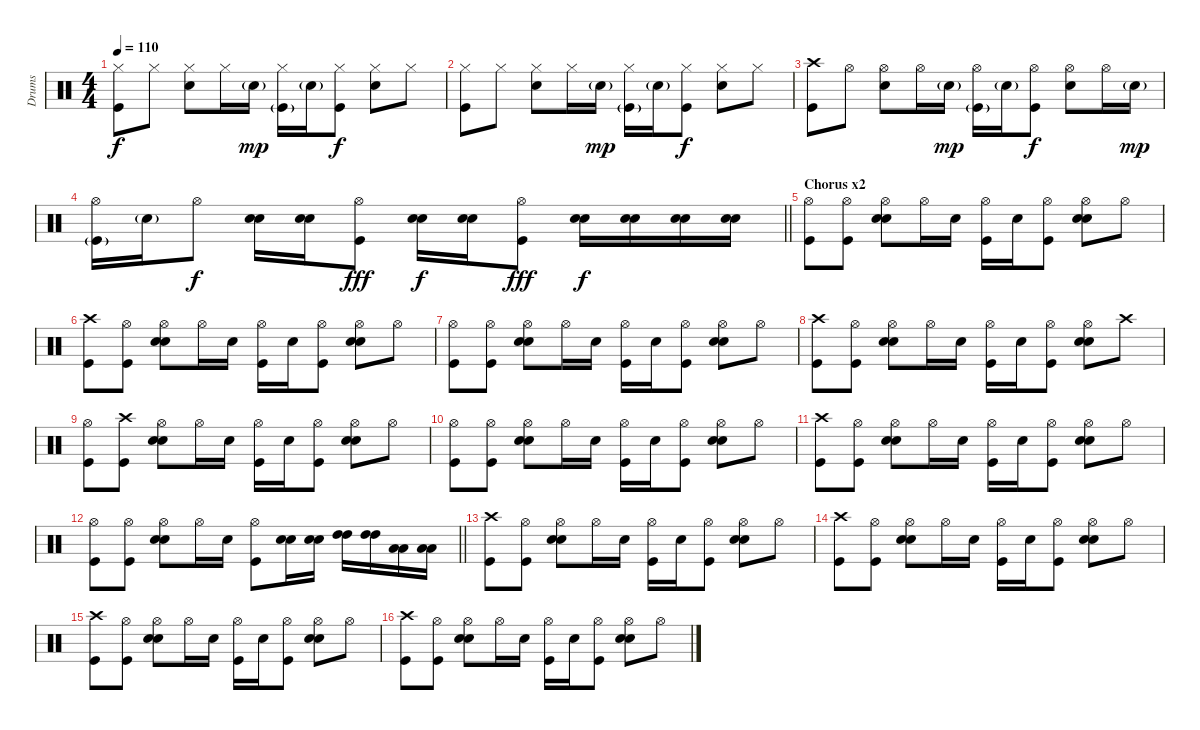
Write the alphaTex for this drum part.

\track ("Drums" "Drums") {instrument percussion}
\staff {score}
\articulation defaults
\ts (4 4)
\tempo 110
\clef neutral
\ks c
("Hi-Hat (closed)" "Kick (hit)").8{dy f} "Hi-Hat (closed)".8 ("Hi-Hat (closed)" "Electric Snare (hit)").8 "Hi-Hat (closed)".16 "Electric Snare (hit)"{g}.16{dy mp} ("Hi-Hat (closed)" "Kick (hit)"{g}).16 "Electric Snare (hit)"{g}.16 ("Hi-Hat (closed)" "Kick (hit)").8{dy f} ("Hi-Hat (closed)" "Electric Snare (hit)").8 "Hi-Hat (closed)".8 |
("Hi-Hat (closed)" "Kick (hit)").8 "Hi-Hat (closed)".8 ("Hi-Hat (closed)" "Electric Snare (hit)").8 "Hi-Hat (closed)".16 "Electric Snare (hit)"{g}.16{dy mp} ("Hi-Hat (closed)" "Kick (hit)"{g}).16 "Electric Snare (hit)"{g}.16 ("Hi-Hat (closed)" "Kick (hit)").8{dy f} ("Hi-Hat (closed)" "Electric Snare (hit)").8 "Hi-Hat (closed)".8 |
("Crash high (hit)" "Kick (hit)").8 "Hi-Hat (open)".8 ("Hi-Hat (open)" "Electric Snare (hit)").8 "Hi-Hat (open)".16 "Electric Snare (hit)"{g}.16{dy mp} ("Hi-Hat (open)" "Kick (hit)"{g}).16 "Electric Snare (hit)"{g}.16 ("Hi-Hat (open)" "Kick (hit)").8{dy f} ("Hi-Hat (open)" "Electric Snare (hit)").8 "Hi-Hat (open)".16 "Electric Snare (hit)"{g}.16{dy mp} |
\barLineRight lightlight
("Hi-Hat (open)" "Kick (hit)"{g}).16 "Electric Snare (hit)"{g}.16 "Hi-Hat (open)".8{dy f} ("Electric Snare (hit)" "Snare (hit) 2").16 ("Electric Snare (hit)" "Snare (hit) 2").16 ("Hi-Hat (open)" "Kick (hit)").8{dy fff} ("Electric Snare (hit)" "Snare (hit) 2").16{dy f} ("Electric Snare (hit)" "Snare (hit) 2").16 ("Hi-Hat (open)" "Kick (hit)").8{dy fff} ("Electric Snare (hit)" "Snare (hit) 2").16{dy f} ("Electric Snare (hit)" "Snare (hit) 2").16 ("Electric Snare (hit)" "Snare (hit) 2").16 ("Electric Snare (hit)" "Snare (hit) 2").16 |
\section ("" "Chorus x2")
("Hi-Hat (open)" "Kick (hit)").8 ("Hi-Hat (open)" "Kick (hit)").8 ("Hi-Hat (open)" "Electric Snare (hit)" "Snare (hit) 2").8 "Hi-Hat (open)".16 "Electric Snare (hit)".16 ("Hi-Hat (open)" "Kick (hit)").16 "Electric Snare (hit)".16 ("Hi-Hat (open)" "Kick (hit)").8 ("Hi-Hat (open)" "Electric Snare (hit)" "Snare (hit) 2").8 "Hi-Hat (open)".8 |
("Crash high (hit)" "Kick (hit)").8 ("Hi-Hat (open)" "Kick (hit)").8 ("Hi-Hat (open)" "Electric Snare (hit)" "Snare (hit) 2").8 "Hi-Hat (open)".16 "Electric Snare (hit)".16 ("Hi-Hat (open)" "Kick (hit)").16 "Electric Snare (hit)".16 ("Hi-Hat (open)" "Kick (hit)").8 ("Hi-Hat (open)" "Electric Snare (hit)" "Snare (hit) 2").8 "Hi-Hat (open)".8 |
("Hi-Hat (open)" "Kick (hit)").8 ("Hi-Hat (open)" "Kick (hit)").8 ("Hi-Hat (open)" "Electric Snare (hit)" "Snare (hit) 2").8 "Hi-Hat (open)".16 "Electric Snare (hit)".16 ("Hi-Hat (open)" "Kick (hit)").16 "Electric Snare (hit)".16 ("Hi-Hat (open)" "Kick (hit)").8 ("Hi-Hat (open)" "Electric Snare (hit)" "Snare (hit) 2").8 "Hi-Hat (open)".8 |
("Crash high (hit)" "Kick (hit)").8 ("Hi-Hat (open)" "Kick (hit)").8 ("Hi-Hat (open)" "Electric Snare (hit)" "Snare (hit) 2").8 "Hi-Hat (open)".16 "Electric Snare (hit)".16 ("Hi-Hat (open)" "Kick (hit)").16 "Electric Snare (hit)".16 ("Hi-Hat (open)" "Kick (hit)").8 ("Hi-Hat (open)" "Electric Snare (hit)" "Snare (hit) 2").8 "Crash high (hit)".8 |
("Hi-Hat (open)" "Kick (hit)").8 ("Crash high (hit)" "Kick (hit)").8 ("Hi-Hat (open)" "Electric Snare (hit)" "Snare (hit) 2").8 "Hi-Hat (open)".16 "Electric Snare (hit)".16 ("Hi-Hat (open)" "Kick (hit)").16 "Electric Snare (hit)".16 ("Hi-Hat (open)" "Kick (hit)").8 ("Hi-Hat (open)" "Electric Snare (hit)" "Snare (hit) 2").8 "Hi-Hat (open)".8 |
("Hi-Hat (open)" "Kick (hit)").8 ("Hi-Hat (open)" "Kick (hit)").8 ("Hi-Hat (open)" "Electric Snare (hit)" "Snare (hit) 2").8 "Hi-Hat (open)".16 "Electric Snare (hit)".16 ("Hi-Hat (open)" "Kick (hit)").16 "Electric Snare (hit)".16 ("Hi-Hat (open)" "Kick (hit)").8 ("Hi-Hat (open)" "Electric Snare (hit)" "Snare (hit) 2").8 "Hi-Hat (open)".8 |
("Crash high (hit)" "Kick (hit)").8 ("Hi-Hat (open)" "Kick (hit)").8 ("Hi-Hat (open)" "Electric Snare (hit)" "Snare (hit) 2").8 "Hi-Hat (open)".16 "Electric Snare (hit)".16 ("Hi-Hat (open)" "Kick (hit)").16 "Electric Snare (hit)".16 ("Hi-Hat (open)" "Kick (hit)").8 ("Hi-Hat (open)" "Electric Snare (hit)" "Snare (hit) 2").8 "Hi-Hat (open)".8 |
\barLineRight lightlight
("Hi-Hat (open)" "Kick (hit)").8 ("Hi-Hat (open)" "Kick (hit)").8 ("Hi-Hat (open)" "Electric Snare (hit)" "Snare (hit) 2").8 "Hi-Hat (open)".16 "Electric Snare (hit)".16 ("Hi-Hat (open)" "Kick (hit)").8 ("Electric Snare (hit)" "Snare (hit) 2").16 ("Electric Snare (hit)" "Snare (hit) 2").16 ("High Tom (hit)" "High Tom (hit)").16 ("High Tom (hit)" "High Tom (hit)").16 ("Low Tom (hit)" "Low Tom (hit)").16 ("Low Floor Tom (hit)" "Low Floor Tom (hit)").16 |
("Crash high (hit)" "Kick (hit)").8 ("Hi-Hat (open)" "Kick (hit)").8 ("Hi-Hat (open)" "Electric Snare (hit)" "Snare (hit) 2").8 "Hi-Hat (open)".16 "Electric Snare (hit)".16 ("Hi-Hat (open)" "Kick (hit)").16 "Electric Snare (hit)".16 ("Hi-Hat (open)" "Kick (hit)").8 ("Hi-Hat (open)" "Electric Snare (hit)" "Snare (hit) 2").8 "Hi-Hat (open)".8 |
("Crash high (hit)" "Kick (hit)").8 ("Hi-Hat (open)" "Kick (hit)").8 ("Hi-Hat (open)" "Electric Snare (hit)" "Snare (hit) 2").8 "Hi-Hat (open)".16 "Electric Snare (hit)".16 ("Hi-Hat (open)" "Kick (hit)").16 "Electric Snare (hit)".16 ("Hi-Hat (open)" "Kick (hit)").8 ("Hi-Hat (open)" "Electric Snare (hit)" "Snare (hit) 2").8 "Hi-Hat (open)".8 |
("Crash high (hit)" "Kick (hit)").8 ("Hi-Hat (open)" "Kick (hit)").8 ("Hi-Hat (open)" "Electric Snare (hit)" "Snare (hit) 2").8 "Hi-Hat (open)".16 "Electric Snare (hit)".16 ("Hi-Hat (open)" "Kick (hit)").16 "Electric Snare (hit)".16 ("Hi-Hat (open)" "Kick (hit)").8 ("Hi-Hat (open)" "Electric Snare (hit)" "Snare (hit) 2").8 "Hi-Hat (open)".8 |
("Crash high (hit)" "Kick (hit)").8 ("Hi-Hat (open)" "Kick (hit)").8 ("Hi-Hat (open)" "Electric Snare (hit)" "Snare (hit) 2").8 "Hi-Hat (open)".16 "Electric Snare (hit)".16 ("Hi-Hat (open)" "Kick (hit)").16 "Electric Snare (hit)".16 ("Hi-Hat (open)" "Kick (hit)").8 ("Hi-Hat (open)" "Electric Snare (hit)" "Snare (hit) 2").8 "Hi-Hat (open)".8
